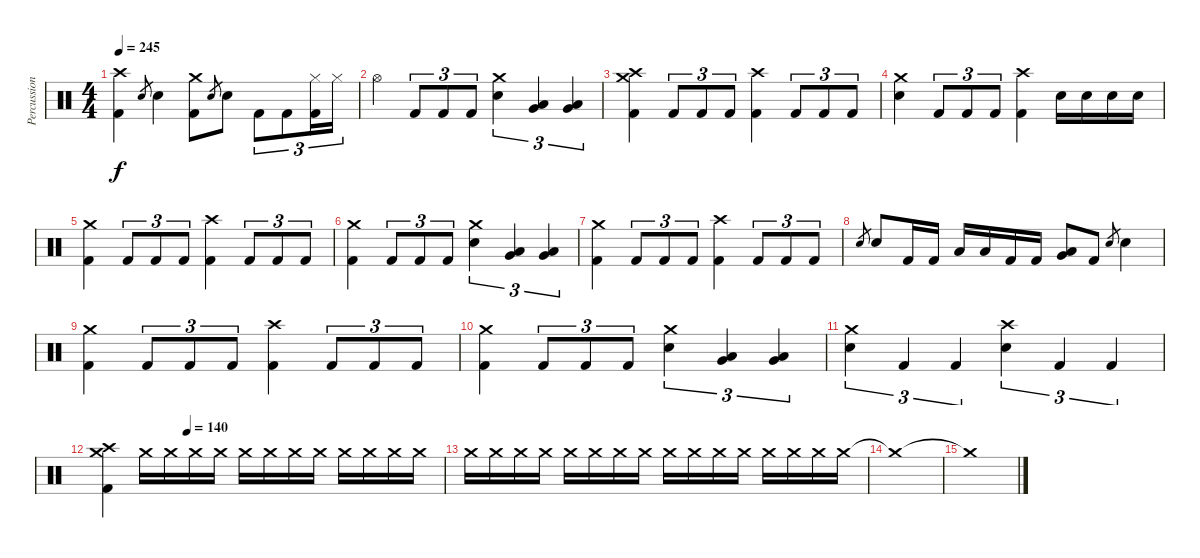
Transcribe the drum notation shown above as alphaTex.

\track ("Percussion" "Percussion") {instrument percussion}
\staff {score}
\articulation defaults
\ts (4 4)
\tempo 245
\clef neutral
\ks c
("Crash high (hit)" "Kick (hit) 2").4{dy f} "Electric Snare (hit)".8{gr} "Electric Snare (hit)".4 ("Crash medium (hit)" "Kick (hit) 2").8 "Electric Snare (hit)".8{gr} "Electric Snare (hit)".8 "Kick (hit) 2".8{tu (3 2)} "Kick (hit) 2".8{tu (3 2)} ("Hi-Hat (closed)" "Kick (hit) 2").16{tu (3 2)} "Hi-Hat (closed)".16{tu (3 2)} |
"Hi-Hat (open)".4 "Kick (hit) 2".8{tu (3 2)} "Kick (hit) 2".8{tu (3 2)} "Kick (hit) 2".8{tu (3 2)} ("Crash medium (hit)" "Electric Snare (hit)").4{tu (3 2)} ("Very Low Tom (hit)" "Low Floor Tom (hit)").4{tu (3 2)} ("Very Low Tom (hit)" "Low Floor Tom (hit)").4{tu (3 2)} |
("Crash medium (hit)" "Crash high (hit)" "Kick (hit) 2").4 "Kick (hit) 2".8{tu (3 2)} "Kick (hit) 2".8{tu (3 2)} "Kick (hit) 2".8{tu (3 2)} ("Crash high (hit)" "Kick (hit) 2").4 "Kick (hit) 2".8{tu (3 2)} "Kick (hit) 2".8{tu (3 2)} "Kick (hit) 2".8{tu (3 2)} |
("Crash medium (hit)" "Electric Snare (hit)").4 "Kick (hit) 2".8{tu (3 2)} "Kick (hit) 2".8{tu (3 2)} "Kick (hit) 2".8{tu (3 2)} ("Crash high (hit)" "Kick (hit) 2").4 "Electric Snare (hit)".16 "Electric Snare (hit)".16 "Electric Snare (hit)".16 "Electric Snare (hit)".16 |
("Crash medium (hit)" "Kick (hit) 2").4 "Kick (hit) 2".8{tu (3 2)} "Kick (hit) 2".8{tu (3 2)} "Kick (hit) 2".8{tu (3 2)} ("Crash high (hit)" "Kick (hit) 2").4 "Kick (hit) 2".8{tu (3 2)} "Kick (hit) 2".8{tu (3 2)} "Kick (hit) 2".8{tu (3 2)} |
("Crash medium (hit)" "Kick (hit) 2").4 "Kick (hit) 2".8{tu (3 2)} "Kick (hit) 2".8{tu (3 2)} "Kick (hit) 2".8{tu (3 2)} ("Crash medium (hit)" "Electric Snare (hit)").4{tu (3 2)} ("Very Low Tom (hit)" "Low Floor Tom (hit)").4{tu (3 2)} ("Very Low Tom (hit)" "Low Floor Tom (hit)").4{tu (3 2)} |
("Crash medium (hit)" "Kick (hit) 2").4 "Kick (hit) 2".8{tu (3 2)} "Kick (hit) 2".8{tu (3 2)} "Kick (hit) 2".8{tu (3 2)} ("Crash high (hit)" "Kick (hit) 2").4 "Kick (hit) 2".8{tu (3 2)} "Kick (hit) 2".8{tu (3 2)} "Kick (hit) 2".8{tu (3 2)} |
"Electric Snare (hit)".8{gr} "Electric Snare (hit)".8 "Kick (hit) 2".16 "Kick (hit) 2".16 "Low Tom (hit)".16 "Low Tom (hit)".16 "Kick (hit) 2".16 "Kick (hit) 2".16 ("Very Low Tom (hit)" "Low Floor Tom (hit)").8 "Kick (hit) 2".8 "Electric Snare (hit)".8{gr} "Electric Snare (hit)".4 |
("Crash medium (hit)" "Kick (hit) 2").4 "Kick (hit) 2".8{tu (3 2)} "Kick (hit) 2".8{tu (3 2)} "Kick (hit) 2".8{tu (3 2)} ("Crash high (hit)" "Kick (hit) 2").4 "Kick (hit) 2".8{tu (3 2)} "Kick (hit) 2".8{tu (3 2)} "Kick (hit) 2".8{tu (3 2)} |
("Crash medium (hit)" "Kick (hit) 2").4 "Kick (hit) 2".8{tu (3 2)} "Kick (hit) 2".8{tu (3 2)} "Kick (hit) 2".8{tu (3 2)} ("Crash medium (hit)" "Electric Snare (hit)").4{tu (3 2)} ("Very Low Tom (hit)" "Low Floor Tom (hit)").4{tu (3 2)} ("Very Low Tom (hit)" "Low Floor Tom (hit)").4{tu (3 2)} |
("Crash medium (hit)" "Electric Snare (hit)").4{tu (3 2)} "Kick (hit) 2".4{tu (3 2)} "Kick (hit) 2".4{tu (3 2)} ("Crash high (hit)" "Electric Snare (hit)").4{tu (3 2)} "Kick (hit) 2".4{tu (3 2)} "Kick (hit) 2".4{tu (3 2)} |
\tempo (140 0.25)
("Crash medium (hit)" "Crash high (hit)" "Kick (hit) 2").4{volume 4} "Crash medium (hit)".16{volume 14} "Crash medium (hit)".16 "Crash medium (hit)".16 "Crash medium (hit)".16 "Crash medium (hit)".16 "Crash medium (hit)".16 "Crash medium (hit)".16 "Crash medium (hit)".16 "Crash medium (hit)".16 "Crash medium (hit)".16 "Crash medium (hit)".16 "Crash medium (hit)".16 |
"Crash medium (hit)".16 "Crash medium (hit)".16 "Crash medium (hit)".16 "Crash medium (hit)".16 "Crash medium (hit)".16 "Crash medium (hit)".16 "Crash medium (hit)".16 "Crash medium (hit)".16 "Crash medium (hit)".16 "Crash medium (hit)".16 "Crash medium (hit)".16 "Crash medium (hit)".16 "Crash medium (hit)".16 "Crash medium (hit)".16 "Crash medium (hit)".16 "Crash medium (hit)".16 |
"Crash medium (hit)"{t}.1 |
"Crash medium (hit)"{t}.1
